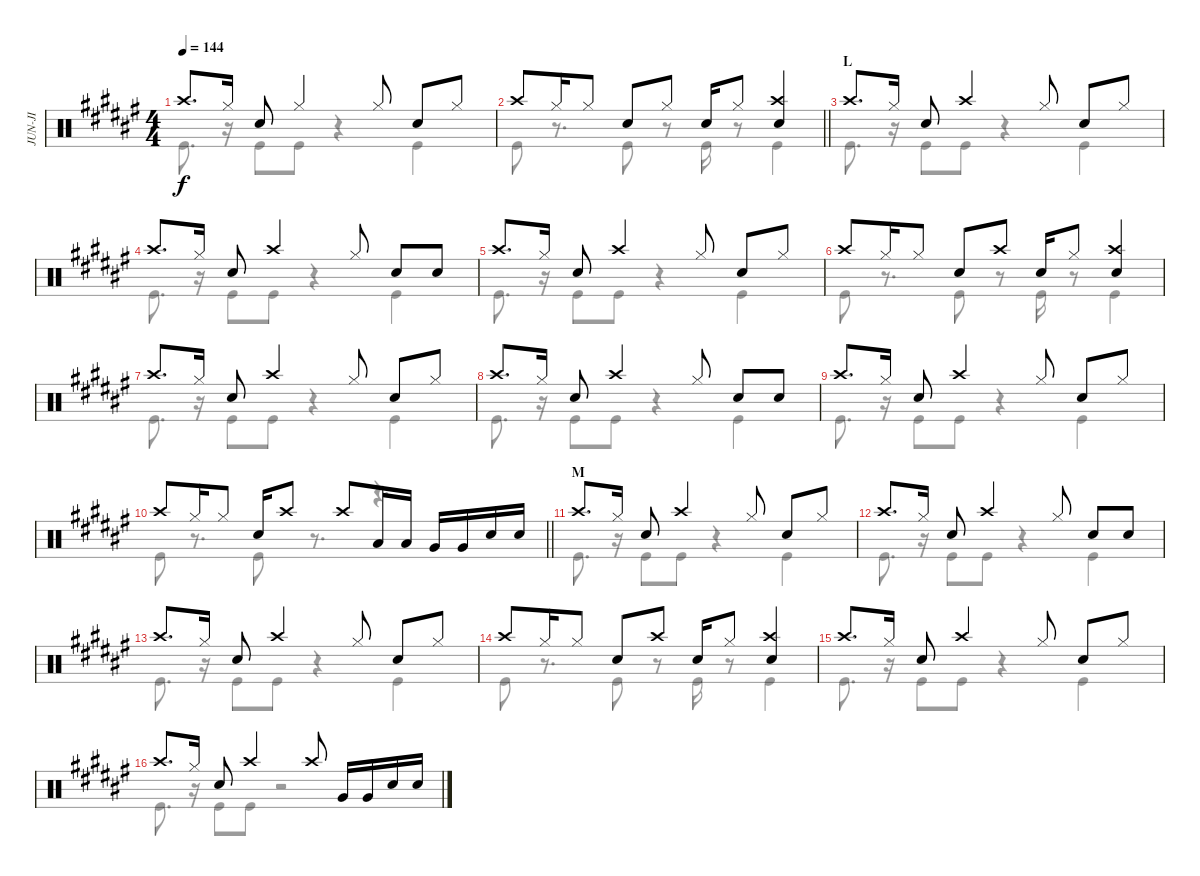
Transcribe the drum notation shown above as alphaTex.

\track ("JUN-JI" "JUN-JI") {instrument percussion}
\staff {score}
\articulation defaults
\voice
\ts (4 4)
\tempo 144
\clef neutral
\ks d#minor "Crash high (hit)".8{d dy f} "Hi-Hat (closed)".16 "Snare (hit) 2".8 "Hi-Hat (closed)".4 "Hi-Hat (closed)".8 "Snare (hit) 2".8 "Hi-Hat (closed)".8
|
\barLineRight lightlight "Crash high (hit)".8 "Hi-Hat (closed)".16 "Hi-Hat (closed)".8 "Snare (hit) 2".8 "Hi-Hat (closed)".8 "Snare (hit) 2".16 "Hi-Hat (closed)".8
("Crash high (hit)" "Snare (hit) 2").4 |
\section ("" "L")
"Crash high (hit)".8{d} "Hi-Hat (closed)".16 "Snare (hit) 2".8 "Crash high (hit)".4 "Hi-Hat (closed)".8 "Snare (hit) 2".8 "Hi-Hat (closed)".8 |
"Crash high (hit)".8{d} "Hi-Hat (closed)".16 "Snare (hit) 2".8 "Crash high (hit)".4 "Hi-Hat (closed)".8 "Snare (hit) 2".8 "Snare (hit) 2".8 |
"Crash high (hit)".8{d} "Hi-Hat (closed)".16 "Snare (hit) 2".8 "Crash high (hit)".4 "Hi-Hat (closed)".8 "Snare (hit) 2".8 "Hi-Hat (closed)".8 |
"Crash high (hit)".8 "Hi-Hat (closed)".16 "Hi-Hat (closed)".8 "Snare (hit) 2".8 "Crash high (hit)".8 "Snare (hit) 2".16 "Hi-Hat (closed)".8 ("Crash high (hit)" "Snare (hit) 2").4 |
"Crash high (hit)".8{d} "Hi-Hat (closed)".16 "Snare (hit) 2".8 "Crash high (hit)".4 "Hi-Hat (closed)".8 "Snare (hit) 2".8 "Hi-Hat (closed)".8 |
"Crash high (hit)".8{d} "Hi-Hat (closed)".16 "Snare (hit) 2".8 "Crash high (hit)".4 "Hi-Hat (closed)".8 "Snare (hit) 2".8 "Snare (hit) 2".8 |
"Crash high (hit)".8{d} "Hi-Hat (closed)".16 "Snare (hit) 2".8 "Crash high (hit)".4 "Hi-Hat (closed)".8 "Snare (hit) 2".8 "Hi-Hat (closed)".8 |
\barLineRight lightlight "Crash high (hit)".8 "Hi-Hat (closed)".16 "Hi-Hat (closed)".8 "Snare (hit) 2".16 "Crash high (hit)".8 "Crash high (hit)".8 "Low Tom (hit)".16 "Low Tom (hit)".16 "Very Low Tom (hit)".16 "Very Low Tom (hit)".16 "Snare (hit) 2".16 "Snare (hit) 2".16
|
\section ("" "M")
"Crash high (hit)".8{d} "Hi-Hat (closed)".16 "Snare (hit) 2".8 "Crash high (hit)".4 "Hi-Hat (closed)".8 "Snare (hit) 2".8 "Hi-Hat (closed)".8 |
"Crash high (hit)".8{d} "Hi-Hat (closed)".16 "Snare (hit) 2".8 "Crash high (hit)".4 "Hi-Hat (closed)".8 "Snare (hit) 2".8 "Snare (hit) 2".8 |
"Crash high (hit)".8{d} "Hi-Hat (closed)".16 "Snare (hit) 2".8 "Crash high (hit)".4 "Hi-Hat (closed)".8 "Snare (hit) 2".8 "Hi-Hat (closed)".8 |
"Crash high (hit)".8 "Hi-Hat (closed)".16 "Hi-Hat (closed)".8 "Snare (hit) 2".8 "Crash high (hit)".8 "Snare (hit) 2".16 "Hi-Hat (closed)".8 ("Crash high (hit)" "Snare (hit) 2").4 |
"Crash high (hit)".8{d} "Hi-Hat (closed)".16 "Snare (hit) 2".8 "Crash high (hit)".4 "Hi-Hat (closed)".8 "Snare (hit) 2".8 "Hi-Hat (closed)".8 |
"Crash high (hit)".8{d} "Hi-Hat (closed)".16 "Snare (hit) 2".8 "Crash high (hit)".4 "Crash high (hit)".8 "Very Low Tom (hit)".16 "Very Low Tom (hit)".16 "Snare (hit) 2".16 "Snare (hit) 2".16
\voice
\clef neutral
\ottava regular
\simile none
\ks d#minor "Kick (hit)".8{d dy f}
r.16 "Kick (hit)".8 "Kick (hit)".8 r.4 "Kick (hit)".4 |
\barLineRight lightlight "Kick (hit)".8
r.8{d} "Kick (hit)".8 r.8 "Kick (hit)".16 r.8 "Kick (hit)".4 |
"Kick (hit)".8{d} r.16 "Kick (hit)".8 "Kick (hit)".8 r.4 "Kick (hit)".4 |
"Kick (hit)".8{d} r.16 "Kick (hit)".8 "Kick (hit)".8 r.4 "Kick (hit)".4 |
"Kick (hit)".8{d} r.16 "Kick (hit)".8 "Kick (hit)".8 r.4 "Kick (hit)".4 |
"Kick (hit)".8 r.8{d} "Kick (hit)".8 r.8 "Kick (hit)".16 r.8 "Kick (hit)".4 |
"Kick (hit)".8{d} r.16 "Kick (hit)".8 "Kick (hit)".8 r.4 "Kick (hit)".4 |
"Kick (hit)".8{d} r.16 "Kick (hit)".8 "Kick (hit)".8 r.4 "Kick (hit)".4 |
"Kick (hit)".8{d} r.16 "Kick (hit)".8 "Kick (hit)".8 r.4 "Kick (hit)".4 |
\barLineRight lightlight "Kick (hit)".8
r.8{d} "Kick (hit)".8 r.8{d} r.4{d} |
"Kick (hit)".8{d} r.16 "Kick (hit)".8 "Kick (hit)".8 r.4 "Kick (hit)".4 |
"Kick (hit)".8{d} r.16 "Kick (hit)".8 "Kick (hit)".8 r.4 "Kick (hit)".4 |
"Kick (hit)".8{d} r.16 "Kick (hit)".8 "Kick (hit)".8 r.4 "Kick (hit)".4 |
"Kick (hit)".8 r.8{d} "Kick (hit)".8 r.8 "Kick (hit)".16 r.8 "Kick (hit)".4 |
"Kick (hit)".8{d} r.16 "Kick (hit)".8 "Kick (hit)".8 r.4 "Kick (hit)".4 |
"Kick (hit)".8{d} r.16 "Kick (hit)".8 "Kick (hit)".8 r.2
